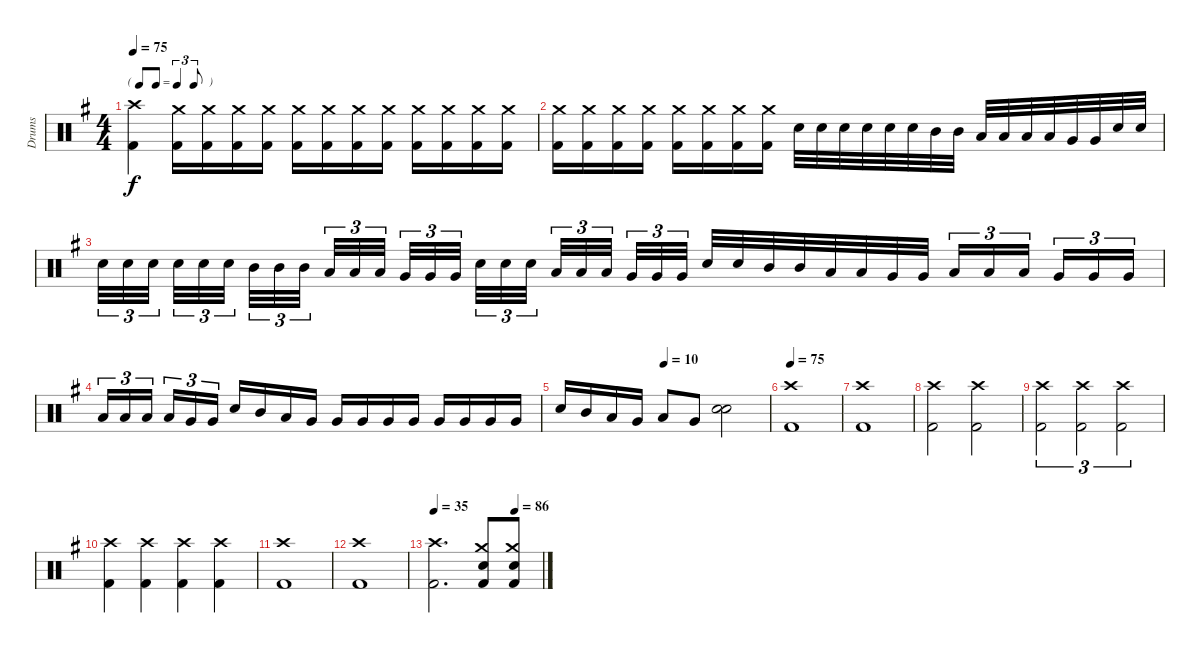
\track ("Drums" "Drums") {instrument percussion}
\staff {score}
\articulation defaults
\ts (4 4)
\tf triplet8th
\tempo 75
\clef neutral
\ks g
("Crash high (hit)" "Kick (hit) 2").4{dy f} ("Crash medium (hit)" "Kick (hit) 2").16 ("Crash medium (hit)" "Kick (hit) 2").16 ("Crash medium (hit)" "Kick (hit) 2").16 ("Crash medium (hit)" "Kick (hit) 2").16 ("Crash medium (hit)" "Kick (hit) 2").16 ("Crash medium (hit)" "Kick (hit) 2").16 ("Crash medium (hit)" "Kick (hit) 2").16 ("Crash medium (hit)" "Kick (hit) 2").16 ("Crash medium (hit)" "Kick (hit) 2").16 ("Crash medium (hit)" "Kick (hit) 2").16 ("Crash medium (hit)" "Kick (hit) 2").16 ("Crash medium (hit)" "Kick (hit) 2").16 |
("Crash medium (hit)" "Kick (hit) 2").16 ("Crash medium (hit)" "Kick (hit) 2").16 ("Crash medium (hit)" "Kick (hit) 2").16 ("Crash medium (hit)" "Kick (hit) 2").16 ("Crash medium (hit)" "Kick (hit) 2").16 ("Crash medium (hit)" "Kick (hit) 2").16 ("Crash medium (hit)" "Kick (hit) 2").16 ("Crash medium (hit)" "Kick (hit) 2").16 "Snare (hit) 2".32 "Snare (hit) 2".32 "Snare (hit) 2".32 "Snare (hit) 2".32 "Snare (hit) 2".32 "Snare (hit) 2".32 "Mid Tom (hit)".32 "Mid Tom (hit)".32 "Low Tom (hit)".32 "Low Tom (hit)".32 "Low Tom (hit)".32 "Low Tom (hit)".32 "Very Low Tom (hit)".32 "Very Low Tom (hit)".32 "Snare (hit) 2".32 "Snare (hit) 2".32 |
"Snare (hit) 2".32{tu (3 2)} "Snare (hit) 2".32{tu (3 2)} "Snare (hit) 2".32{tu (3 2)} "Snare (hit) 2".32{tu (3 2)} "Snare (hit) 2".32{tu (3 2)} "Snare (hit) 2".32{tu (3 2)} "Mid Tom (hit)".32{tu (3 2)} "Mid Tom (hit)".32{tu (3 2)} "Mid Tom (hit)".32{tu (3 2)} "Low Tom (hit)".32{tu (3 2)} "Low Tom (hit)".32{tu (3 2)} "Low Tom (hit)".32{tu (3 2)} "Very Low Tom (hit)".32{tu (3 2)} "Very Low Tom (hit)".32{tu (3 2)} "Very Low Tom (hit)".32{tu (3 2)} "Snare (hit) 2".32{tu (3 2)} "Snare (hit) 2".32{tu (3 2)} "Snare (hit) 2".32{tu (3 2)} "Low Tom (hit)".32{tu (3 2)} "Low Tom (hit)".32{tu (3 2)} "Low Tom (hit)".32{tu (3 2)} "Very Low Tom (hit)".32{tu (3 2)} "Very Low Tom (hit)".32{tu (3 2)} "Very Low Tom (hit)".32{tu (3 2)} "Snare (hit) 2".32 "Snare (hit) 2".32 "Mid Tom (hit)".32 "Mid Tom (hit)".32 "Low Tom (hit)".32 "Low Tom (hit)".32 "Very Low Tom (hit)".32 "Very Low Tom (hit)".32 "Low Tom (hit)".16{tu (3 2)} "Low Tom (hit)".16{tu (3 2)} "Low Tom (hit)".16{tu (3 2)} "Very Low Tom (hit)".16{tu (3 2)} "Very Low Tom (hit)".16{tu (3 2)} "Very Low Tom (hit)".16{tu (3 2)} |
"Low Tom (hit)".16{tu (3 2)} "Low Tom (hit)".16{tu (3 2)} "Low Tom (hit)".16{tu (3 2)} "Low Tom (hit)".16{tu (3 2)} "Very Low Tom (hit)".16{tu (3 2)} "Very Low Tom (hit)".16{tu (3 2)} "Snare (hit) 2".16 "Mid Tom (hit)".16 "Low Tom (hit)".16 "Very Low Tom (hit)".16 "Very Low Tom (hit)".16 "Very Low Tom (hit)".16 "Very Low Tom (hit)".16 "Very Low Tom (hit)".16 "Very Low Tom (hit)".16 "Very Low Tom (hit)".16 "Very Low Tom (hit)".16 "Very Low Tom (hit)".16 |
\tempo (10 0.5)
"Snare (hit) 2".16 "Mid Tom (hit)".16 "Low Tom (hit)".16 "Very Low Tom (hit)".16 "Low Floor Tom (hit)".8 "Very Low Tom (hit)".8 ("Snare (hit) 2" "Snare (hit) 2").2 |
\tempo 75
("Crash high (hit)" "Kick (hit) 2").1 |
("Crash high (hit)" "Kick (hit) 2").1 |
("Crash high (hit)" "Kick (hit) 2").2 ("Crash high (hit)" "Kick (hit) 2").2 |
("Crash high (hit)" "Kick (hit) 2").2{tu (3 2)} ("Crash high (hit)" "Kick (hit) 2").2{tu (3 2)} ("Crash high (hit)" "Kick (hit) 2").2{tu (3 2)} |
("Crash high (hit)" "Kick (hit) 2").4 ("Crash high (hit)" "Kick (hit) 2").4 ("Crash high (hit)" "Kick (hit) 2").4 ("Crash high (hit)" "Kick (hit) 2").4 |
("Crash high (hit)" "Kick (hit) 2").1 |
("Crash high (hit)" "Kick (hit) 2").1 |
\tempo 35
\tempo (86 0.75)
("Crash high (hit)" "Kick (hit) 2").2{d} ("Crash medium (hit)" "Snare (hit) 2" "Kick (hit) 2").8 ("Crash medium (hit)" "Snare (hit) 2" "Kick (hit) 2").8
